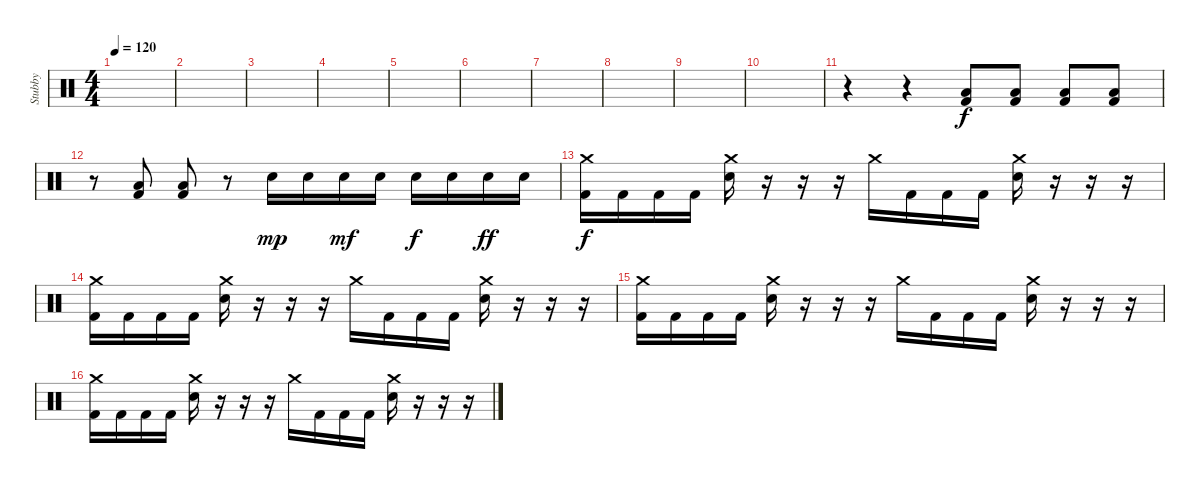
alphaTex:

\track ("Stubby" "Stubby") {instrument percussion}
\staff {score}
\articulation defaults
\ts (4 4)
\tempo 120
\clef neutral
\ks c
|
|
|
|
|
|
|
|
|
|
r.4 r.4 ("Low Floor Tom (hit)" "Kick (hit) 2").8 ("Low Floor Tom (hit)" "Kick (hit) 2").8 ("Low Floor Tom (hit)" "Kick (hit) 2").8 ("Low Floor Tom (hit)" "Kick (hit) 2").8 |
r.8 ("Low Floor Tom (hit)" "Kick (hit) 2").8 ("Low Floor Tom (hit)" "Kick (hit) 2").8 r.8 "Electric Snare (hit)".16{dy mp} "Electric Snare (hit)".16 "Electric Snare (hit)".16{dy mf} "Electric Snare (hit)".16 "Electric Snare (hit)".16{dy f} "Electric Snare (hit)".16 "Electric Snare (hit)".16{dy ff} "Electric Snare (hit)".16 |
("Crash medium (hit)" "Kick (hit) 2").16{dy f} "Kick (hit) 2".16 "Kick (hit) 2".16 "Kick (hit) 2".16 ("Crash medium (hit)" "Electric Snare (hit)").16 r.16 r.16 r.16 "Crash medium (hit)".16 "Kick (hit) 2".16 "Kick (hit) 2".16 "Kick (hit) 2".16 ("Crash medium (hit)" "Electric Snare (hit)").16 r.16 r.16 r.16 |
("Crash medium (hit)" "Kick (hit) 2").16 "Kick (hit) 2".16 "Kick (hit) 2".16 "Kick (hit) 2".16 ("Crash medium (hit)" "Electric Snare (hit)").16 r.16 r.16 r.16 "Crash medium (hit)".16 "Kick (hit) 2".16 "Kick (hit) 2".16 "Kick (hit) 2".16 ("Crash medium (hit)" "Electric Snare (hit)").16 r.16 r.16 r.16 |
("Crash medium (hit)" "Kick (hit) 2").16 "Kick (hit) 2".16 "Kick (hit) 2".16 "Kick (hit) 2".16 ("Crash medium (hit)" "Electric Snare (hit)").16 r.16 r.16 r.16 "Crash medium (hit)".16 "Kick (hit) 2".16 "Kick (hit) 2".16 "Kick (hit) 2".16 ("Crash medium (hit)" "Electric Snare (hit)").16 r.16 r.16 r.16 |
("Crash medium (hit)" "Kick (hit) 2").16 "Kick (hit) 2".16 "Kick (hit) 2".16 "Kick (hit) 2".16 ("Crash medium (hit)" "Electric Snare (hit)").16 r.16 r.16 r.16 "Crash medium (hit)".16 "Kick (hit) 2".16 "Kick (hit) 2".16 "Kick (hit) 2".16 ("Crash medium (hit)" "Electric Snare (hit)").16 r.16 r.16 r.16
